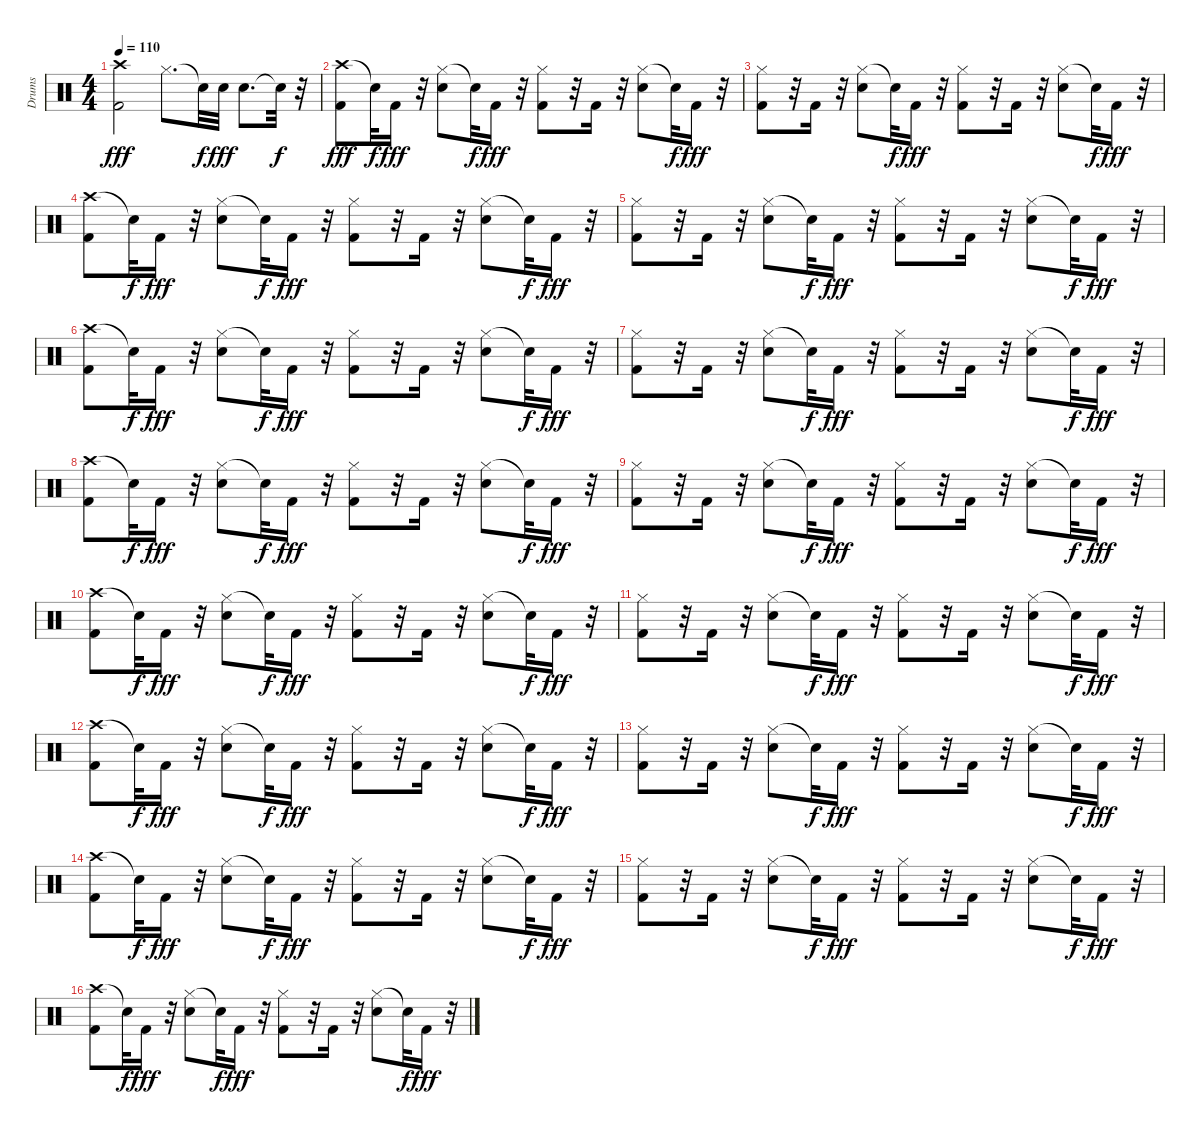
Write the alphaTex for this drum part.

\track ("Drums" "Drums") {instrument percussion}
\staff {score}
\articulation defaults
\ts (4 4)
\tempo 110
\clef neutral
\ks c
("Crash high (hit)" "Kick (hit) 2").2{dy fff} "Hi-Hat (closed)".8{d} "Snare (hit)"{t}.32{dy f} "Snare (hit) 2".32{dy fff} "Snare (hit) 2".8{d} "Snare (hit)"{t}.32{dy f} r.32 |
("Crash high (hit)" "Kick (hit) 2").8{dy fff} "Snare (hit)"{t}.32{dy f} "Kick (hit) 2".16{dy fff} r.32 ("Hi-Hat (closed)" "Snare (hit) 2").8 "Snare (hit)"{t}.32{dy f} "Kick (hit) 2".16{dy fff} r.32 ("Kick (hit) 2" "Hi-Hat (closed)").8 r.32 "Kick (hit) 2".16 r.32 ("Hi-Hat (closed)" "Snare (hit) 2").8 "Snare (hit)"{t}.32{dy f} "Kick (hit) 2".16{dy fff} r.32 |
("Kick (hit) 2" "Hi-Hat (closed)").8 r.32 "Kick (hit) 2".16 r.32 ("Hi-Hat (closed)" "Snare (hit) 2").8 "Snare (hit)"{t}.32{dy f} "Kick (hit) 2".16{dy fff} r.32 ("Kick (hit) 2" "Hi-Hat (closed)").8 r.32 "Kick (hit) 2".16 r.32 ("Hi-Hat (closed)" "Snare (hit) 2").8 "Snare (hit)"{t}.32{dy f} "Kick (hit) 2".16{dy fff} r.32 |
("Crash high (hit)" "Kick (hit) 2").8 "Snare (hit)"{t}.32{dy f} "Kick (hit) 2".16{dy fff} r.32 ("Hi-Hat (closed)" "Snare (hit) 2").8 "Snare (hit)"{t}.32{dy f} "Kick (hit) 2".16{dy fff} r.32 ("Kick (hit) 2" "Hi-Hat (closed)").8 r.32 "Kick (hit) 2".16 r.32 ("Hi-Hat (closed)" "Snare (hit) 2").8 "Snare (hit)"{t}.32{dy f} "Kick (hit) 2".16{dy fff} r.32 |
("Kick (hit) 2" "Hi-Hat (closed)").8 r.32 "Kick (hit) 2".16 r.32 ("Hi-Hat (closed)" "Snare (hit) 2").8 "Snare (hit)"{t}.32{dy f} "Kick (hit) 2".16{dy fff} r.32 ("Kick (hit) 2" "Hi-Hat (closed)").8 r.32 "Kick (hit) 2".16 r.32 ("Hi-Hat (closed)" "Snare (hit) 2").8 "Snare (hit)"{t}.32{dy f} "Kick (hit) 2".16{dy fff} r.32 |
("Crash high (hit)" "Kick (hit) 2").8 "Snare (hit)"{t}.32{dy f} "Kick (hit) 2".16{dy fff} r.32 ("Hi-Hat (closed)" "Snare (hit) 2").8 "Snare (hit)"{t}.32{dy f} "Kick (hit) 2".16{dy fff} r.32 ("Kick (hit) 2" "Hi-Hat (closed)").8 r.32 "Kick (hit) 2".16 r.32 ("Hi-Hat (closed)" "Snare (hit) 2").8 "Snare (hit)"{t}.32{dy f} "Kick (hit) 2".16{dy fff} r.32 |
("Kick (hit) 2" "Hi-Hat (closed)").8 r.32 "Kick (hit) 2".16 r.32 ("Hi-Hat (closed)" "Snare (hit) 2").8 "Snare (hit)"{t}.32{dy f} "Kick (hit) 2".16{dy fff} r.32 ("Kick (hit) 2" "Hi-Hat (closed)").8 r.32 "Kick (hit) 2".16 r.32 ("Hi-Hat (closed)" "Snare (hit) 2").8 "Snare (hit)"{t}.32{dy f} "Kick (hit) 2".16{dy fff} r.32 |
("Crash high (hit)" "Kick (hit) 2").8 "Snare (hit)"{t}.32{dy f} "Kick (hit) 2".16{dy fff} r.32 ("Hi-Hat (closed)" "Snare (hit) 2").8 "Snare (hit)"{t}.32{dy f} "Kick (hit) 2".16{dy fff} r.32 ("Kick (hit) 2" "Hi-Hat (closed)").8 r.32 "Kick (hit) 2".16 r.32 ("Hi-Hat (closed)" "Snare (hit) 2").8 "Snare (hit)"{t}.32{dy f} "Kick (hit) 2".16{dy fff} r.32 |
("Kick (hit) 2" "Hi-Hat (closed)").8 r.32 "Kick (hit) 2".16 r.32 ("Hi-Hat (closed)" "Snare (hit) 2").8 "Snare (hit)"{t}.32{dy f} "Kick (hit) 2".16{dy fff} r.32 ("Kick (hit) 2" "Hi-Hat (closed)").8 r.32 "Kick (hit) 2".16 r.32 ("Hi-Hat (closed)" "Snare (hit) 2").8 "Snare (hit)"{t}.32{dy f} "Kick (hit) 2".16{dy fff} r.32 |
("Crash high (hit)" "Kick (hit) 2").8 "Snare (hit)"{t}.32{dy f} "Kick (hit) 2".16{dy fff} r.32 ("Hi-Hat (closed)" "Snare (hit) 2").8 "Snare (hit)"{t}.32{dy f} "Kick (hit) 2".16{dy fff} r.32 ("Kick (hit) 2" "Hi-Hat (closed)").8 r.32 "Kick (hit) 2".16 r.32 ("Hi-Hat (closed)" "Snare (hit) 2").8 "Snare (hit)"{t}.32{dy f} "Kick (hit) 2".16{dy fff} r.32 |
("Kick (hit) 2" "Hi-Hat (closed)").8 r.32 "Kick (hit) 2".16 r.32 ("Hi-Hat (closed)" "Snare (hit) 2").8 "Snare (hit)"{t}.32{dy f} "Kick (hit) 2".16{dy fff} r.32 ("Kick (hit) 2" "Hi-Hat (closed)").8 r.32 "Kick (hit) 2".16 r.32 ("Hi-Hat (closed)" "Snare (hit) 2").8 "Snare (hit)"{t}.32{dy f} "Kick (hit) 2".16{dy fff} r.32 |
("Crash high (hit)" "Kick (hit) 2").8 "Snare (hit)"{t}.32{dy f} "Kick (hit) 2".16{dy fff} r.32 ("Hi-Hat (closed)" "Snare (hit) 2").8 "Snare (hit)"{t}.32{dy f} "Kick (hit) 2".16{dy fff} r.32 ("Kick (hit) 2" "Hi-Hat (closed)").8 r.32 "Kick (hit) 2".16 r.32 ("Hi-Hat (closed)" "Snare (hit) 2").8 "Snare (hit)"{t}.32{dy f} "Kick (hit) 2".16{dy fff} r.32 |
("Kick (hit) 2" "Hi-Hat (closed)").8 r.32 "Kick (hit) 2".16 r.32 ("Hi-Hat (closed)" "Snare (hit) 2").8 "Snare (hit)"{t}.32{dy f} "Kick (hit) 2".16{dy fff} r.32 ("Kick (hit) 2" "Hi-Hat (closed)").8 r.32 "Kick (hit) 2".16 r.32 ("Hi-Hat (closed)" "Snare (hit) 2").8 "Snare (hit)"{t}.32{dy f} "Kick (hit) 2".16{dy fff} r.32 |
("Crash high (hit)" "Kick (hit) 2").8 "Snare (hit)"{t}.32{dy f} "Kick (hit) 2".16{dy fff} r.32 ("Hi-Hat (closed)" "Snare (hit) 2").8 "Snare (hit)"{t}.32{dy f} "Kick (hit) 2".16{dy fff} r.32 ("Kick (hit) 2" "Hi-Hat (closed)").8 r.32 "Kick (hit) 2".16 r.32 ("Hi-Hat (closed)" "Snare (hit) 2").8 "Snare (hit)"{t}.32{dy f} "Kick (hit) 2".16{dy fff} r.32 |
("Kick (hit) 2" "Hi-Hat (closed)").8 r.32 "Kick (hit) 2".16 r.32 ("Hi-Hat (closed)" "Snare (hit) 2").8 "Snare (hit)"{t}.32{dy f} "Kick (hit) 2".16{dy fff} r.32 ("Kick (hit) 2" "Hi-Hat (closed)").8 r.32 "Kick (hit) 2".16 r.32 ("Hi-Hat (closed)" "Snare (hit) 2").8 "Snare (hit)"{t}.32{dy f} "Kick (hit) 2".16{dy fff} r.32 |
("Crash high (hit)" "Kick (hit) 2").8 "Snare (hit)"{t}.32{dy f} "Kick (hit) 2".16{dy fff} r.32 ("Hi-Hat (closed)" "Snare (hit) 2").8 "Snare (hit)"{t}.32{dy f} "Kick (hit) 2".16{dy fff} r.32 ("Kick (hit) 2" "Hi-Hat (closed)").8 r.32 "Kick (hit) 2".16 r.32 ("Hi-Hat (closed)" "Snare (hit) 2").8 "Snare (hit)"{t}.32{dy f} "Kick (hit) 2".16{dy fff} r.32
